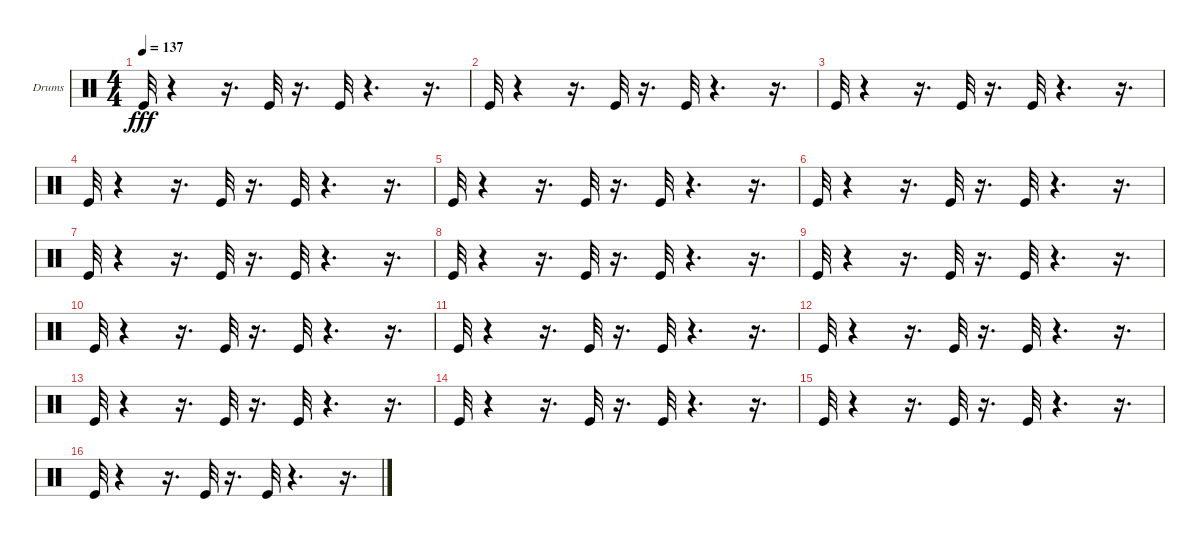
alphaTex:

\bracketExtendMode groupsimilarinstruments
\firstSystemTrackNameOrientation horizontal
\otherSystemsTrackNameOrientation horizontal
\track ("Drumkit" "Drums") {instrument percussion}
\staff {score}
\articulation defaults
\ts (4 4)
\tempo 137
\clef neutral
\ks c "Kick (hit)".32{dy fff}
r.4 r.16{d} "Kick (hit)".32 r.16{d} "Kick (hit)".32 r.4{d} r.16{d} |
"Kick (hit)".32 r.4 r.16{d} "Kick (hit)".32 r.16{d} "Kick (hit)".32 r.4{d} r.16{d} |
"Kick (hit)".32 r.4 r.16{d} "Kick (hit)".32 r.16{d} "Kick (hit)".32 r.4{d} r.16{d} |
"Kick (hit)".32 r.4 r.16{d} "Kick (hit)".32 r.16{d} "Kick (hit)".32 r.4{d} r.16{d} |
"Kick (hit)".32 r.4 r.16{d} "Kick (hit)".32 r.16{d} "Kick (hit)".32 r.4{d} r.16{d} |
"Kick (hit)".32 r.4 r.16{d} "Kick (hit)".32 r.16{d} "Kick (hit)".32 r.4{d} r.16{d} |
"Kick (hit)".32 r.4 r.16{d} "Kick (hit)".32 r.16{d} "Kick (hit)".32 r.4{d} r.16{d} |
"Kick (hit)".32 r.4 r.16{d} "Kick (hit)".32 r.16{d} "Kick (hit)".32 r.4{d} r.16{d} |
"Kick (hit)".32 r.4 r.16{d} "Kick (hit)".32 r.16{d} "Kick (hit)".32 r.4{d} r.16{d} |
"Kick (hit)".32 r.4 r.16{d} "Kick (hit)".32 r.16{d} "Kick (hit)".32 r.4{d} r.16{d} |
"Kick (hit)".32 r.4 r.16{d} "Kick (hit)".32 r.16{d} "Kick (hit)".32 r.4{d} r.16{d} |
"Kick (hit)".32 r.4 r.16{d} "Kick (hit)".32 r.16{d} "Kick (hit)".32 r.4{d} r.16{d} |
"Kick (hit)".32 r.4 r.16{d} "Kick (hit)".32 r.16{d} "Kick (hit)".32 r.4{d} r.16{d} |
"Kick (hit)".32 r.4 r.16{d} "Kick (hit)".32 r.16{d} "Kick (hit)".32 r.4{d} r.16{d} |
"Kick (hit)".32 r.4 r.16{d} "Kick (hit)".32 r.16{d} "Kick (hit)".32 r.4{d} r.16{d} |
"Kick (hit)".32 r.4 r.16{d} "Kick (hit)".32 r.16{d} "Kick (hit)".32 r.4{d} r.16{d}
